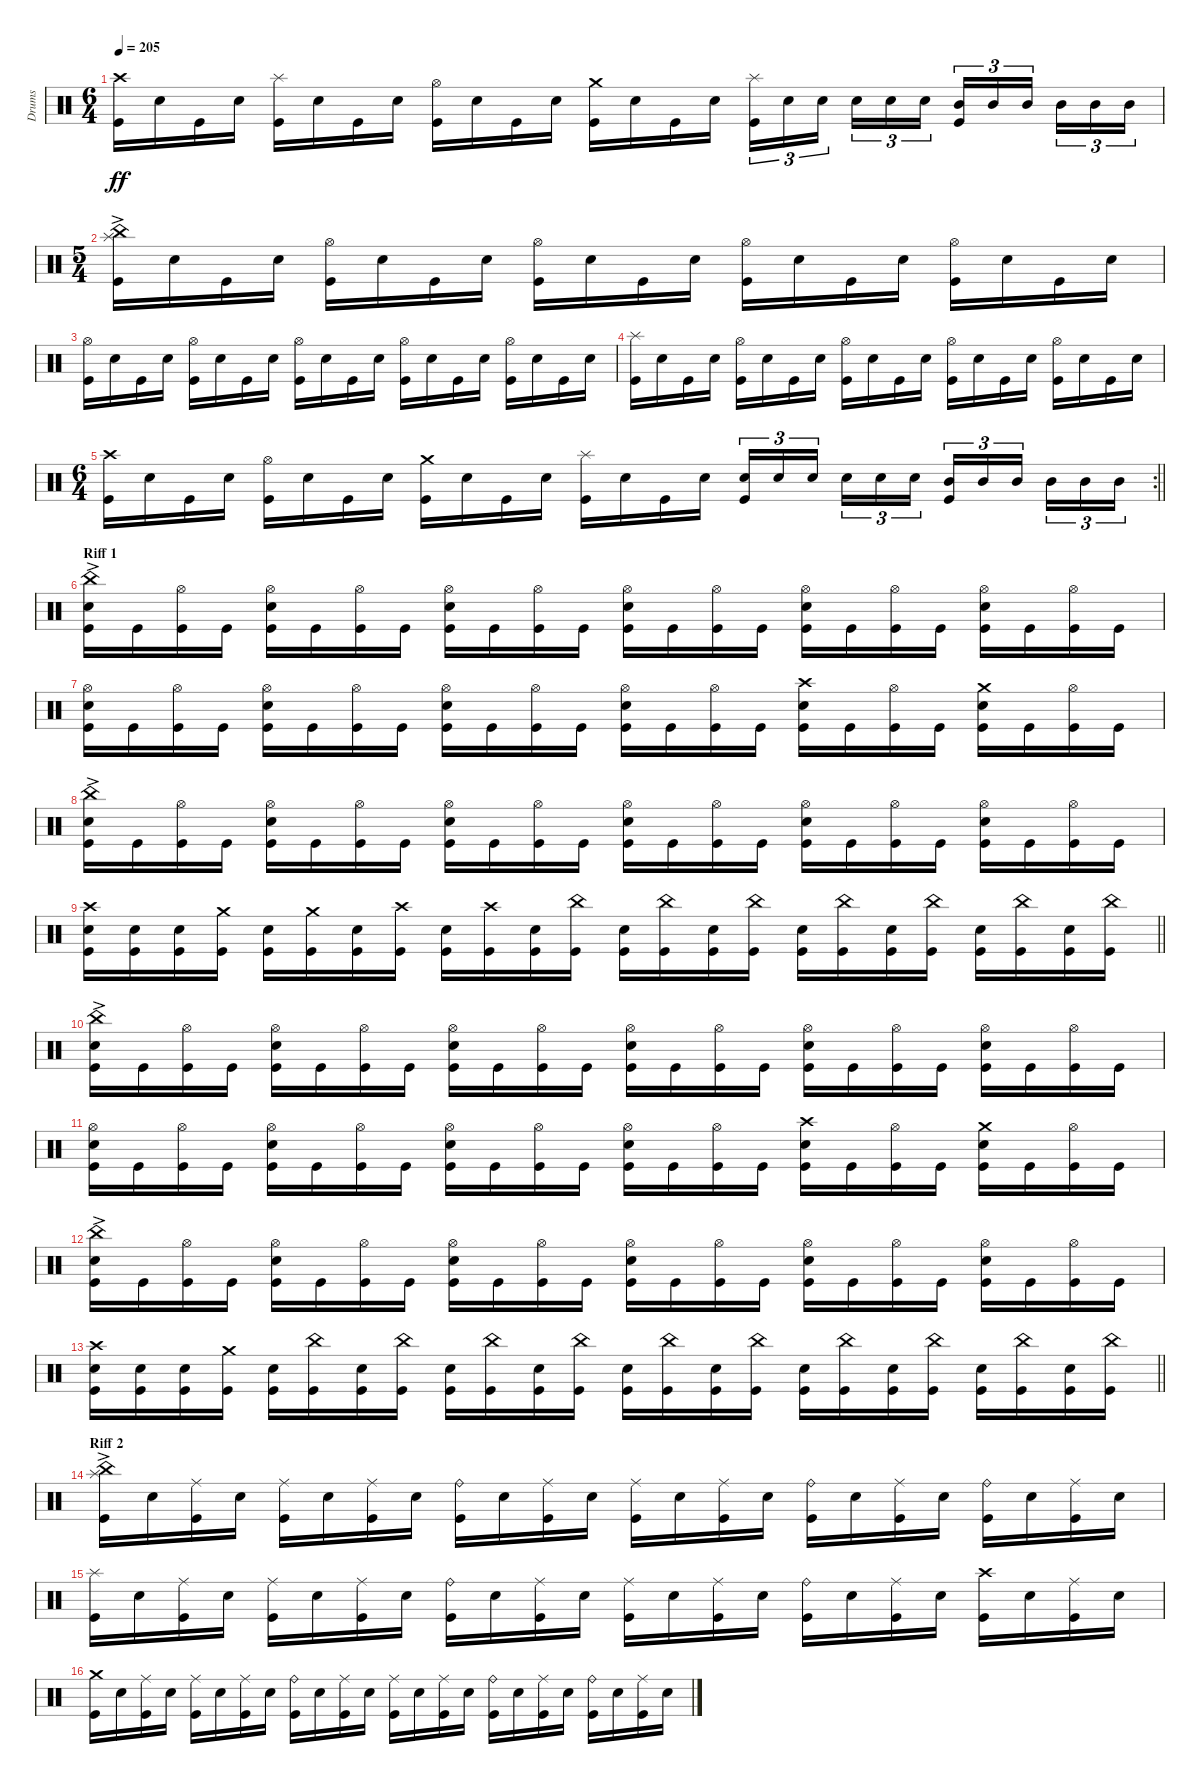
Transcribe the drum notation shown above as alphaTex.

\track ("Drums" "Drums") {instrument percussion}
\staff {score}
\articulation defaults
\ts (6 4)
\tempo 205
\clef neutral
\ks c
("Crash high (hit)" "Kick (hit)").16{dy ff} "Electric Snare (hit)".16 "Kick (hit)".16 "Electric Snare (hit)".16 ("Splash (hit)" "Kick (hit)").16 "Electric Snare (hit)".16 "Kick (hit)".16 "Electric Snare (hit)".16 ("Hi-Hat (open)" "Kick (hit)").16 "Electric Snare (hit)".16 "Kick (hit)".16 "Electric Snare (hit)".16 ("Crash medium (hit)" "Kick (hit)").16 "Electric Snare (hit)".16 "Kick (hit)".16 "Electric Snare (hit)".16{beam splitsecondary} ("Splash (hit)" "Kick (hit)").16{tu (3 2)} "Electric Snare (hit)".16{tu (3 2)} "Electric Snare (hit)".16{tu (3 2) beam splitsecondary} "Electric Snare (hit)".16{tu (3 2)} "Electric Snare (hit)".16{tu (3 2)} "Electric Snare (hit)".16{tu (3 2) beam splitsecondary} ("Mid Tom (hit)" "Kick (hit)").16{tu (3 2)} "Mid Tom (hit)".16{tu (3 2)} "Mid Tom (hit)".16{tu (3 2) beam splitsecondary} "Mid Tom (hit)".16{tu (3 2)} "Mid Tom (hit)".16{tu (3 2)} "Mid Tom (hit)".16{tu (3 2)} |
\ts (5 4)
("China (hit)"{ac} "Splash (hit)" "Kick (hit)").16 "Electric Snare (hit)".16 "Kick (hit)".16 "Electric Snare (hit)".16 ("Hi-Hat (open)" "Kick (hit)").16 "Electric Snare (hit)".16 "Kick (hit)".16 "Electric Snare (hit)".16 ("Hi-Hat (open)" "Kick (hit)").16 "Electric Snare (hit)".16 "Kick (hit)".16 "Electric Snare (hit)".16 ("Hi-Hat (open)" "Kick (hit)").16 "Electric Snare (hit)".16 "Kick (hit)".16 "Electric Snare (hit)".16 ("Hi-Hat (open)" "Kick (hit)").16 "Electric Snare (hit)".16 "Kick (hit)".16 "Electric Snare (hit)".16 |
("Hi-Hat (open)" "Kick (hit)").16 "Electric Snare (hit)".16 "Kick (hit)".16 "Electric Snare (hit)".16 ("Hi-Hat (open)" "Kick (hit)").16 "Electric Snare (hit)".16 "Kick (hit)".16 "Electric Snare (hit)".16 ("Hi-Hat (open)" "Kick (hit)").16 "Electric Snare (hit)".16 "Kick (hit)".16 "Electric Snare (hit)".16 ("Hi-Hat (open)" "Kick (hit)").16 "Electric Snare (hit)".16 "Kick (hit)".16 "Electric Snare (hit)".16 ("Hi-Hat (open)" "Kick (hit)").16 "Electric Snare (hit)".16 "Kick (hit)".16 "Electric Snare (hit)".16 |
("Splash (hit)" "Kick (hit)").16 "Electric Snare (hit)".16 "Kick (hit)".16 "Electric Snare (hit)".16 ("Hi-Hat (open)" "Kick (hit)").16 "Electric Snare (hit)".16 "Kick (hit)".16 "Electric Snare (hit)".16 ("Hi-Hat (open)" "Kick (hit)").16 "Electric Snare (hit)".16 "Kick (hit)".16 "Electric Snare (hit)".16 ("Hi-Hat (open)" "Kick (hit)").16 "Electric Snare (hit)".16 "Kick (hit)".16 "Electric Snare (hit)".16 ("Hi-Hat (open)" "Kick (hit)").16 "Electric Snare (hit)".16 "Kick (hit)".16 "Electric Snare (hit)".16 |
\rc 2
\ts (6 4)
\barLineRight lightlight
("Crash high (hit)" "Kick (hit)").16 "Electric Snare (hit)".16 "Kick (hit)".16 "Electric Snare (hit)".16 ("Hi-Hat (open)" "Kick (hit)").16 "Electric Snare (hit)".16 "Kick (hit)".16 "Electric Snare (hit)".16 ("Crash medium (hit)" "Kick (hit)").16 "Electric Snare (hit)".16 "Kick (hit)".16 "Electric Snare (hit)".16 ("Splash (hit)" "Kick (hit)").16 "Electric Snare (hit)".16 "Kick (hit)".16 "Electric Snare (hit)".16{beam splitsecondary} ("Electric Snare (hit)" "Kick (hit)").16{tu (3 2)} "Electric Snare (hit)".16{tu (3 2)} "Electric Snare (hit)".16{tu (3 2) beam splitsecondary} "Electric Snare (hit)".16{tu (3 2)} "Electric Snare (hit)".16{tu (3 2)} "Electric Snare (hit)".16{tu (3 2) beam splitsecondary} ("Mid Tom (hit)" "Kick (hit)").16{tu (3 2)} "Mid Tom (hit)".16{tu (3 2)} "Mid Tom (hit)".16{tu (3 2) beam splitsecondary} "Mid Tom (hit)".16{tu (3 2)} "Mid Tom (hit)".16{tu (3 2)} "Mid Tom (hit)".16{tu (3 2)} |
\section ("" "Riff 1")
("China (hit)"{ac} "Electric Snare (hit)" "Kick (hit)").16 "Kick (hit)".16 ("Hi-Hat (open)" "Kick (hit)").16 "Kick (hit)".16 ("Hi-Hat (open)" "Electric Snare (hit)" "Kick (hit)").16 "Kick (hit)".16 ("Hi-Hat (open)" "Kick (hit)").16 "Kick (hit)".16 ("Hi-Hat (open)" "Electric Snare (hit)" "Kick (hit)").16 "Kick (hit)".16 ("Hi-Hat (open)" "Kick (hit)").16 "Kick (hit)".16 ("Hi-Hat (open)" "Electric Snare (hit)" "Kick (hit)").16 "Kick (hit)".16 ("Hi-Hat (open)" "Kick (hit)").16 "Kick (hit)".16 ("Hi-Hat (open)" "Electric Snare (hit)" "Kick (hit)").16 "Kick (hit)".16 ("Hi-Hat (open)" "Kick (hit)").16 "Kick (hit)".16 ("Hi-Hat (open)" "Electric Snare (hit)" "Kick (hit)").16 "Kick (hit)".16 ("Hi-Hat (open)" "Kick (hit)").16 "Kick (hit)".16 |
("Hi-Hat (open)" "Electric Snare (hit)" "Kick (hit)").16 "Kick (hit)".16 ("Hi-Hat (open)" "Kick (hit)").16 "Kick (hit)".16 ("Hi-Hat (open)" "Electric Snare (hit)" "Kick (hit)").16 "Kick (hit)".16 ("Hi-Hat (open)" "Kick (hit)").16 "Kick (hit)".16 ("Hi-Hat (open)" "Electric Snare (hit)" "Kick (hit)").16 "Kick (hit)".16 ("Hi-Hat (open)" "Kick (hit)").16 "Kick (hit)".16 ("Hi-Hat (open)" "Electric Snare (hit)" "Kick (hit)").16 "Kick (hit)".16 ("Hi-Hat (open)" "Kick (hit)").16 "Kick (hit)".16 ("Crash high (hit)" "Electric Snare (hit)" "Kick (hit)").16 "Kick (hit)".16 ("Hi-Hat (open)" "Kick (hit)").16 "Kick (hit)".16 ("Crash medium (hit)" "Electric Snare (hit)" "Kick (hit)").16 "Kick (hit)".16 ("Hi-Hat (open)" "Kick (hit)").16 "Kick (hit)".16 |
("China (hit)"{ac} "Electric Snare (hit)" "Kick (hit)").16 "Kick (hit)".16 ("Hi-Hat (open)" "Kick (hit)").16 "Kick (hit)".16 ("Hi-Hat (open)" "Electric Snare (hit)" "Kick (hit)").16 "Kick (hit)".16 ("Hi-Hat (open)" "Kick (hit)").16 "Kick (hit)".16 ("Hi-Hat (open)" "Electric Snare (hit)" "Kick (hit)").16 "Kick (hit)".16 ("Hi-Hat (open)" "Kick (hit)").16 "Kick (hit)".16 ("Hi-Hat (open)" "Electric Snare (hit)" "Kick (hit)").16 "Kick (hit)".16 ("Hi-Hat (open)" "Kick (hit)").16 "Kick (hit)".16 ("Hi-Hat (open)" "Electric Snare (hit)" "Kick (hit)").16 "Kick (hit)".16 ("Hi-Hat (open)" "Kick (hit)").16 "Kick (hit)".16 ("Hi-Hat (open)" "Electric Snare (hit)" "Kick (hit)").16 "Kick (hit)".16 ("Hi-Hat (open)" "Kick (hit)").16 "Kick (hit)".16 |
\barLineRight lightlight
("Crash high (hit)" "Electric Snare (hit)" "Kick (hit)").16 ("Electric Snare (hit)" "Kick (hit)").16 ("Electric Snare (hit)" "Kick (hit)").16 ("Crash medium (hit)" "Kick (hit)").16 ("Electric Snare (hit)" "Kick (hit)").16 ("Crash medium (hit)" "Kick (hit)").16 ("Electric Snare (hit)" "Kick (hit)").16 ("Crash high (hit)" "Kick (hit)").16 ("Electric Snare (hit)" "Kick (hit)").16 ("Crash high (hit)" "Kick (hit)").16 ("Electric Snare (hit)" "Kick (hit)").16 ("China (hit)" "Kick (hit)").16 ("Electric Snare (hit)" "Kick (hit)").16 ("China (hit)" "Kick (hit)").16 ("Electric Snare (hit)" "Kick (hit)").16 ("China (hit)" "Kick (hit)").16 ("Electric Snare (hit)" "Kick (hit)").16 ("China (hit)" "Kick (hit)").16 ("Electric Snare (hit)" "Kick (hit)").16 ("China (hit)" "Kick (hit)").16 ("Electric Snare (hit)" "Kick (hit)").16 ("China (hit)" "Kick (hit)").16 ("Electric Snare (hit)" "Kick (hit)").16 ("China (hit)" "Kick (hit)").16 |
("China (hit)"{ac} "Electric Snare (hit)" "Kick (hit)").16 "Kick (hit)".16 ("Hi-Hat (open)" "Kick (hit)").16 "Kick (hit)".16 ("Hi-Hat (open)" "Electric Snare (hit)" "Kick (hit)").16 "Kick (hit)".16 ("Hi-Hat (open)" "Kick (hit)").16 "Kick (hit)".16 ("Hi-Hat (open)" "Electric Snare (hit)" "Kick (hit)").16 "Kick (hit)".16 ("Hi-Hat (open)" "Kick (hit)").16 "Kick (hit)".16 ("Hi-Hat (open)" "Electric Snare (hit)" "Kick (hit)").16 "Kick (hit)".16 ("Hi-Hat (open)" "Kick (hit)").16 "Kick (hit)".16 ("Hi-Hat (open)" "Electric Snare (hit)" "Kick (hit)").16 "Kick (hit)".16 ("Hi-Hat (open)" "Kick (hit)").16 "Kick (hit)".16 ("Hi-Hat (open)" "Electric Snare (hit)" "Kick (hit)").16 "Kick (hit)".16 ("Hi-Hat (open)" "Kick (hit)").16 "Kick (hit)".16 |
("Hi-Hat (open)" "Electric Snare (hit)" "Kick (hit)").16 "Kick (hit)".16 ("Hi-Hat (open)" "Kick (hit)").16 "Kick (hit)".16 ("Hi-Hat (open)" "Electric Snare (hit)" "Kick (hit)").16 "Kick (hit)".16 ("Hi-Hat (open)" "Kick (hit)").16 "Kick (hit)".16 ("Hi-Hat (open)" "Electric Snare (hit)" "Kick (hit)").16 "Kick (hit)".16 ("Hi-Hat (open)" "Kick (hit)").16 "Kick (hit)".16 ("Hi-Hat (open)" "Electric Snare (hit)" "Kick (hit)").16 "Kick (hit)".16 ("Hi-Hat (open)" "Kick (hit)").16 "Kick (hit)".16 ("Crash high (hit)" "Electric Snare (hit)" "Kick (hit)").16 "Kick (hit)".16 ("Hi-Hat (open)" "Kick (hit)").16 "Kick (hit)".16 ("Crash medium (hit)" "Electric Snare (hit)" "Kick (hit)").16 "Kick (hit)".16 ("Hi-Hat (open)" "Kick (hit)").16 "Kick (hit)".16 |
("China (hit)"{ac} "Electric Snare (hit)" "Kick (hit)").16 "Kick (hit)".16 ("Hi-Hat (open)" "Kick (hit)").16 "Kick (hit)".16 ("Hi-Hat (open)" "Electric Snare (hit)" "Kick (hit)").16 "Kick (hit)".16 ("Hi-Hat (open)" "Kick (hit)").16 "Kick (hit)".16 ("Hi-Hat (open)" "Electric Snare (hit)" "Kick (hit)").16 "Kick (hit)".16 ("Hi-Hat (open)" "Kick (hit)").16 "Kick (hit)".16 ("Hi-Hat (open)" "Electric Snare (hit)" "Kick (hit)").16 "Kick (hit)".16 ("Hi-Hat (open)" "Kick (hit)").16 "Kick (hit)".16 ("Hi-Hat (open)" "Electric Snare (hit)" "Kick (hit)").16 "Kick (hit)".16 ("Hi-Hat (open)" "Kick (hit)").16 "Kick (hit)".16 ("Hi-Hat (open)" "Electric Snare (hit)" "Kick (hit)").16 "Kick (hit)".16 ("Hi-Hat (open)" "Kick (hit)").16 "Kick (hit)".16 |
\barLineRight lightlight
("Crash high (hit)" "Electric Snare (hit)" "Kick (hit)").16 ("Electric Snare (hit)" "Kick (hit)").16 ("Electric Snare (hit)" "Kick (hit)").16 ("Crash medium (hit)" "Kick (hit)").16 ("Electric Snare (hit)" "Kick (hit)").16 ("China (hit)" "Kick (hit)").16 ("Electric Snare (hit)" "Kick (hit)").16 ("China (hit)" "Kick (hit)").16 ("Electric Snare (hit)" "Kick (hit)").16 ("China (hit)" "Kick (hit)").16 ("Electric Snare (hit)" "Kick (hit)").16 ("China (hit)" "Kick (hit)").16 ("Electric Snare (hit)" "Kick (hit)").16 ("China (hit)" "Kick (hit)").16 ("Electric Snare (hit)" "Kick (hit)").16 ("China (hit)" "Kick (hit)").16 ("Electric Snare (hit)" "Kick (hit)").16 ("China (hit)" "Kick (hit)").16 ("Electric Snare (hit)" "Kick (hit)").16 ("China (hit)" "Kick (hit)").16 ("Electric Snare (hit)" "Kick (hit)").16 ("China (hit)" "Kick (hit)").16 ("Electric Snare (hit)" "Kick (hit)").16 ("China (hit)" "Kick (hit)").16 |
\section ("" "Riff 2")
("China (hit)"{ac} "Splash (hit)" "Kick (hit)").16 "Electric Snare (hit)".16 ("Ride (middle)" "Kick (hit)").16 "Electric Snare (hit)".16 ("Ride (middle)" "Kick (hit)").16 "Electric Snare (hit)".16 ("Ride (middle)" "Kick (hit)").16 "Electric Snare (hit)".16 ("Ride (bell)" "Kick (hit)").16 "Electric Snare (hit)".16 ("Ride (middle)" "Kick (hit)").16 "Electric Snare (hit)".16 ("Ride (middle)" "Kick (hit)").16 "Electric Snare (hit)".16 ("Ride (middle)" "Kick (hit)").16 "Electric Snare (hit)".16 ("Ride (bell)" "Kick (hit)").16 "Electric Snare (hit)".16 ("Ride (middle)" "Kick (hit)").16 "Electric Snare (hit)".16 ("Ride (bell)" "Kick (hit)").16 "Electric Snare (hit)".16 ("Ride (middle)" "Kick (hit)").16 "Electric Snare (hit)".16 |
("Splash (hit)" "Kick (hit)").16 "Electric Snare (hit)".16 ("Ride (middle)" "Kick (hit)").16 "Electric Snare (hit)".16 ("Ride (middle)" "Kick (hit)").16 "Electric Snare (hit)".16 ("Ride (middle)" "Kick (hit)").16 "Electric Snare (hit)".16 ("Ride (bell)" "Kick (hit)").16 "Electric Snare (hit)".16 ("Ride (middle)" "Kick (hit)").16 "Electric Snare (hit)".16 ("Ride (middle)" "Kick (hit)").16 "Electric Snare (hit)".16 ("Ride (middle)" "Kick (hit)").16 "Electric Snare (hit)".16 ("Ride (bell)" "Kick (hit)").16 "Electric Snare (hit)".16 ("Ride (middle)" "Kick (hit)").16 "Electric Snare (hit)".16 ("Crash high (hit)" "Kick (hit)").16 "Electric Snare (hit)".16 ("Ride (middle)" "Kick (hit)").16 "Electric Snare (hit)".16 |
("Crash medium (hit)" "Kick (hit)").16 "Electric Snare (hit)".16 ("Ride (middle)" "Kick (hit)").16 "Electric Snare (hit)".16 ("Ride (middle)" "Kick (hit)").16 "Electric Snare (hit)".16 ("Ride (middle)" "Kick (hit)").16 "Electric Snare (hit)".16 ("Ride (bell)" "Kick (hit)").16 "Electric Snare (hit)".16 ("Ride (middle)" "Kick (hit)").16 "Electric Snare (hit)".16 ("Ride (middle)" "Kick (hit)").16 "Electric Snare (hit)".16 ("Ride (middle)" "Kick (hit)").16 "Electric Snare (hit)".16 ("Ride (bell)" "Kick (hit)").16 "Electric Snare (hit)".16 ("Ride (middle)" "Kick (hit)").16 "Electric Snare (hit)".16 ("Ride (bell)" "Kick (hit)").16 "Electric Snare (hit)".16 ("Ride (middle)" "Kick (hit)").16 "Electric Snare (hit)".16
